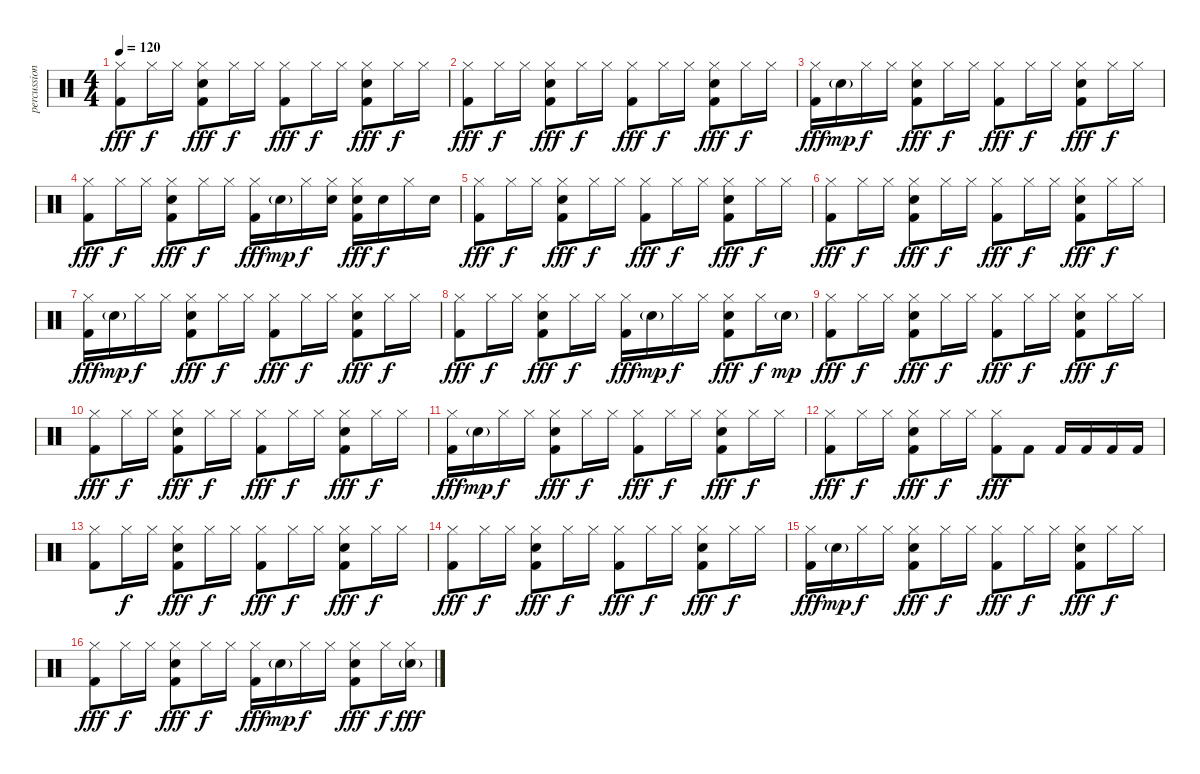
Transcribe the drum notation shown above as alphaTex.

\track ("percussion" "percussion") {instrument percussion}
\staff {score}
\articulation defaults
\ts (4 4)
\tempo 120
\clef neutral
\ks c
("Hi-Hat (closed)" "Kick (hit) 2").8{dy fff} "Hi-Hat (closed)".16{dy f} "Hi-Hat (closed)".16 ("Snare (hit) 2" "Hi-Hat (closed)" "Kick (hit) 2").8{dy fff} "Hi-Hat (closed)".16{dy f} "Hi-Hat (closed)".16 ("Hi-Hat (closed)" "Kick (hit) 2").8{dy fff} "Hi-Hat (closed)".16{dy f} "Hi-Hat (closed)".16 ("Snare (hit) 2" "Hi-Hat (closed)" "Kick (hit) 2").8{dy fff} "Hi-Hat (closed)".16{dy f} "Hi-Hat (closed)".16 |
("Hi-Hat (closed)" "Kick (hit) 2").8{dy fff} "Hi-Hat (closed)".16{dy f} "Hi-Hat (closed)".16 ("Snare (hit) 2" "Hi-Hat (closed)" "Kick (hit) 2").8{dy fff} "Hi-Hat (closed)".16{dy f} "Hi-Hat (closed)".16 ("Hi-Hat (closed)" "Kick (hit) 2").8{dy fff} "Hi-Hat (closed)".16{dy f} "Hi-Hat (closed)".16 ("Snare (hit) 2" "Hi-Hat (closed)" "Kick (hit) 2").8{dy fff} "Hi-Hat (closed)".16{dy f} "Hi-Hat (closed)".16 |
("Hi-Hat (closed)" "Kick (hit) 2").16{dy fff} "Electric Snare (hit)"{g}.16{dy mp} "Hi-Hat (closed)".16{dy f} "Hi-Hat (closed)".16 ("Snare (hit) 2" "Hi-Hat (closed)" "Kick (hit) 2").8{dy fff} "Hi-Hat (closed)".16{dy f} "Hi-Hat (closed)".16 ("Hi-Hat (closed)" "Kick (hit) 2").8{dy fff} "Hi-Hat (closed)".16{dy f} "Hi-Hat (closed)".16 ("Snare (hit) 2" "Hi-Hat (closed)" "Kick (hit) 2").8{dy fff} "Hi-Hat (closed)".16{dy f} "Hi-Hat (closed)".16 |
("Hi-Hat (closed)" "Kick (hit) 2").8{dy fff} "Hi-Hat (closed)".16{dy f} "Hi-Hat (closed)".16 ("Snare (hit) 2" "Hi-Hat (closed)" "Kick (hit) 2").8{dy fff} "Hi-Hat (closed)".16{dy f} "Hi-Hat (closed)".16 ("Hi-Hat (closed)" "Kick (hit) 2").16{dy fff} "Electric Snare (hit)"{g}.16{dy mp} "Hi-Hat (closed)".16{dy f} ("Electric Snare (hit)" "Hi-Hat (closed)").16 ("Snare (hit) 2" "Hi-Hat (closed)" "Kick (hit) 2").16{dy fff} "Electric Snare (hit)".16{dy f} "Hi-Hat (closed)".16 "Electric Snare (hit)".16 |
("Hi-Hat (closed)" "Kick (hit) 2").8{dy fff} "Hi-Hat (closed)".16{dy f} "Hi-Hat (closed)".16 ("Snare (hit) 2" "Hi-Hat (closed)" "Kick (hit) 2").8{dy fff} "Hi-Hat (closed)".16{dy f} "Hi-Hat (closed)".16 ("Hi-Hat (closed)" "Kick (hit) 2").8{dy fff} "Hi-Hat (closed)".16{dy f} "Hi-Hat (closed)".16 ("Snare (hit) 2" "Hi-Hat (closed)" "Kick (hit) 2").8{dy fff} "Hi-Hat (closed)".16{dy f} "Hi-Hat (closed)".16 |
("Hi-Hat (closed)" "Kick (hit) 2").8{dy fff} "Hi-Hat (closed)".16{dy f} "Hi-Hat (closed)".16 ("Snare (hit) 2" "Hi-Hat (closed)" "Kick (hit) 2").8{dy fff} "Hi-Hat (closed)".16{dy f} "Hi-Hat (closed)".16 ("Hi-Hat (closed)" "Kick (hit) 2").8{dy fff} "Hi-Hat (closed)".16{dy f} "Hi-Hat (closed)".16 ("Snare (hit) 2" "Hi-Hat (closed)" "Kick (hit) 2").8{dy fff} "Hi-Hat (closed)".16{dy f} "Hi-Hat (closed)".16 |
("Hi-Hat (closed)" "Kick (hit) 2").16{dy fff} "Electric Snare (hit)"{g}.16{dy mp} "Hi-Hat (closed)".16{dy f} "Hi-Hat (closed)".16 ("Snare (hit) 2" "Hi-Hat (closed)" "Kick (hit) 2").8{dy fff} "Hi-Hat (closed)".16{dy f} "Hi-Hat (closed)".16 ("Hi-Hat (closed)" "Kick (hit) 2").8{dy fff} "Hi-Hat (closed)".16{dy f} "Hi-Hat (closed)".16 ("Snare (hit) 2" "Hi-Hat (closed)" "Kick (hit) 2").8{dy fff} "Hi-Hat (closed)".16{dy f} "Hi-Hat (closed)".16 |
("Hi-Hat (closed)" "Kick (hit) 2").8{dy fff} "Hi-Hat (closed)".16{dy f} "Hi-Hat (closed)".16 ("Snare (hit) 2" "Hi-Hat (closed)" "Kick (hit) 2").8{dy fff} "Hi-Hat (closed)".16{dy f} "Hi-Hat (closed)".16 ("Hi-Hat (closed)" "Kick (hit) 2").16{dy fff} "Electric Snare (hit)"{g}.16{dy mp} "Hi-Hat (closed)".16{dy f} "Hi-Hat (closed)".16 ("Snare (hit) 2" "Hi-Hat (closed)" "Kick (hit) 2").8{dy fff} "Hi-Hat (closed)".16{dy f} "Electric Snare (hit)"{g}.16{dy mp} |
("Hi-Hat (closed)" "Kick (hit) 2").8{dy fff} "Hi-Hat (closed)".16{dy f} "Hi-Hat (closed)".16 ("Snare (hit) 2" "Hi-Hat (closed)" "Kick (hit) 2").8{dy fff} "Hi-Hat (closed)".16{dy f} "Hi-Hat (closed)".16 ("Hi-Hat (closed)" "Kick (hit) 2").8{dy fff} "Hi-Hat (closed)".16{dy f} "Hi-Hat (closed)".16 ("Snare (hit) 2" "Hi-Hat (closed)" "Kick (hit) 2").8{dy fff} "Hi-Hat (closed)".16{dy f} "Hi-Hat (closed)".16 |
("Hi-Hat (closed)" "Kick (hit) 2").8{dy fff} "Hi-Hat (closed)".16{dy f} "Hi-Hat (closed)".16 ("Snare (hit) 2" "Hi-Hat (closed)" "Kick (hit) 2").8{dy fff} "Hi-Hat (closed)".16{dy f} "Hi-Hat (closed)".16 ("Hi-Hat (closed)" "Kick (hit) 2").8{dy fff} "Hi-Hat (closed)".16{dy f} "Hi-Hat (closed)".16 ("Snare (hit) 2" "Hi-Hat (closed)" "Kick (hit) 2").8{dy fff} "Hi-Hat (closed)".16{dy f} "Hi-Hat (closed)".16 |
("Hi-Hat (closed)" "Kick (hit) 2").16{dy fff} "Electric Snare (hit)"{g}.16{dy mp} "Hi-Hat (closed)".16{dy f} "Hi-Hat (closed)".16 ("Snare (hit) 2" "Hi-Hat (closed)" "Kick (hit) 2").8{dy fff} "Hi-Hat (closed)".16{dy f} "Hi-Hat (closed)".16 ("Hi-Hat (closed)" "Kick (hit) 2").8{dy fff} "Hi-Hat (closed)".16{dy f} "Hi-Hat (closed)".16 ("Snare (hit) 2" "Hi-Hat (closed)" "Kick (hit) 2").8{dy fff} "Hi-Hat (closed)".16{dy f} "Hi-Hat (closed)".16 |
("Hi-Hat (closed)" "Kick (hit) 2").8{dy fff} "Hi-Hat (closed)".16{dy f} "Hi-Hat (closed)".16 ("Snare (hit) 2" "Hi-Hat (closed)" "Kick (hit) 2").8{dy fff} "Hi-Hat (closed)".16{dy f} "Hi-Hat (closed)".16 ("Hi-Hat (closed)" "Kick (hit) 2").8{dy fff} "Kick (hit) 2".8 "Kick (hit) 2".16 "Kick (hit) 2".16 "Kick (hit) 2".16 "Kick (hit) 2".16 |
("Hi-Hat (closed)" "Kick (hit) 2").8 "Hi-Hat (closed)".16{dy f} "Hi-Hat (closed)".16 ("Snare (hit) 2" "Hi-Hat (closed)" "Kick (hit) 2").8{dy fff} "Hi-Hat (closed)".16{dy f} "Hi-Hat (closed)".16 ("Hi-Hat (closed)" "Kick (hit) 2").8{dy fff} "Hi-Hat (closed)".16{dy f} "Hi-Hat (closed)".16 ("Snare (hit) 2" "Hi-Hat (closed)" "Kick (hit) 2").8{dy fff} "Hi-Hat (closed)".16{dy f} "Hi-Hat (closed)".16 |
("Hi-Hat (closed)" "Kick (hit) 2").8{dy fff} "Hi-Hat (closed)".16{dy f} "Hi-Hat (closed)".16 ("Snare (hit) 2" "Hi-Hat (closed)" "Kick (hit) 2").8{dy fff} "Hi-Hat (closed)".16{dy f} "Hi-Hat (closed)".16 ("Hi-Hat (closed)" "Kick (hit) 2").8{dy fff} "Hi-Hat (closed)".16{dy f} "Hi-Hat (closed)".16 ("Snare (hit) 2" "Hi-Hat (closed)" "Kick (hit) 2").8{dy fff} "Hi-Hat (closed)".16{dy f} "Hi-Hat (closed)".16 |
("Hi-Hat (closed)" "Kick (hit) 2").16{dy fff} "Electric Snare (hit)"{g}.16{dy mp} "Hi-Hat (closed)".16{dy f} "Hi-Hat (closed)".16 ("Snare (hit) 2" "Hi-Hat (closed)" "Kick (hit) 2").8{dy fff} "Hi-Hat (closed)".16{dy f} "Hi-Hat (closed)".16 ("Hi-Hat (closed)" "Kick (hit) 2").8{dy fff} "Hi-Hat (closed)".16{dy f} "Hi-Hat (closed)".16 ("Snare (hit) 2" "Hi-Hat (closed)" "Kick (hit) 2").8{dy fff} "Hi-Hat (closed)".16{dy f} "Hi-Hat (closed)".16 |
("Hi-Hat (closed)" "Kick (hit) 2").8{dy fff} "Hi-Hat (closed)".16{dy f} "Hi-Hat (closed)".16 ("Snare (hit) 2" "Hi-Hat (closed)" "Kick (hit) 2").8{dy fff} "Hi-Hat (closed)".16{dy f} "Hi-Hat (closed)".16 ("Hi-Hat (closed)" "Kick (hit) 2").16{dy fff} "Electric Snare (hit)"{g}.16{dy mp} "Hi-Hat (closed)".16{dy f} "Hi-Hat (closed)".16 ("Snare (hit) 2" "Hi-Hat (closed)" "Kick (hit) 2").8{dy fff} "Hi-Hat (closed)".16{dy f} ("Electric Snare (hit)"{g} "Hi-Hat (closed)").16{dy fff}
